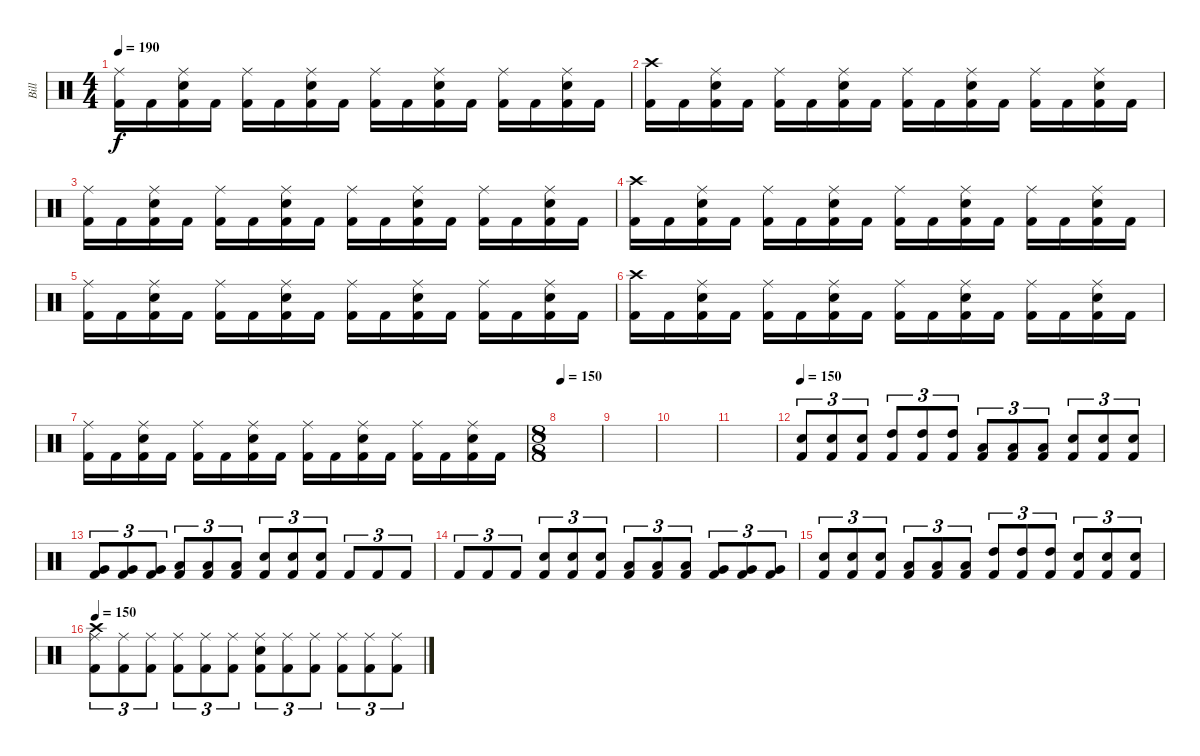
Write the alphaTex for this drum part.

\track ("Bill" "Bill") {instrument percussion}
\staff {score}
\articulation defaults
\ts (4 4)
\tempo 190
\clef neutral
\ks c
("Ride (middle)" "Kick (hit) 2").16{dy f} "Kick (hit) 2".16 ("Ride (middle)" "Snare (hit) 2" "Kick (hit) 2").16 "Kick (hit) 2".16 ("Ride (middle)" "Kick (hit) 2").16 "Kick (hit) 2".16 ("Ride (middle)" "Snare (hit) 2" "Kick (hit) 2").16 "Kick (hit) 2".16 ("Ride (middle)" "Kick (hit) 2").16 "Kick (hit) 2".16 ("Ride (middle)" "Snare (hit) 2" "Kick (hit) 2").16 "Kick (hit) 2".16 ("Ride (middle)" "Kick (hit) 2").16 "Kick (hit) 2".16 ("Ride (middle)" "Snare (hit) 2" "Kick (hit) 2").16 "Kick (hit) 2".16 |
("Crash high (hit)" "Kick (hit) 2").16 "Kick (hit) 2".16 ("Ride (middle)" "Snare (hit) 2" "Kick (hit) 2").16 "Kick (hit) 2".16 ("Ride (middle)" "Kick (hit) 2").16 "Kick (hit) 2".16 ("Ride (middle)" "Snare (hit) 2" "Kick (hit) 2").16 "Kick (hit) 2".16 ("Ride (middle)" "Kick (hit) 2").16 "Kick (hit) 2".16 ("Ride (middle)" "Snare (hit) 2" "Kick (hit) 2").16 "Kick (hit) 2".16 ("Ride (middle)" "Kick (hit) 2").16 "Kick (hit) 2".16 ("Ride (middle)" "Snare (hit) 2" "Kick (hit) 2").16 "Kick (hit) 2".16 |
("Ride (middle)" "Kick (hit) 2").16 "Kick (hit) 2".16 ("Ride (middle)" "Snare (hit) 2" "Kick (hit) 2").16 "Kick (hit) 2".16 ("Ride (middle)" "Kick (hit) 2").16 "Kick (hit) 2".16 ("Ride (middle)" "Snare (hit) 2" "Kick (hit) 2").16 "Kick (hit) 2".16 ("Ride (middle)" "Kick (hit) 2").16 "Kick (hit) 2".16 ("Ride (middle)" "Snare (hit) 2" "Kick (hit) 2").16 "Kick (hit) 2".16 ("Ride (middle)" "Kick (hit) 2").16 "Kick (hit) 2".16 ("Ride (middle)" "Snare (hit) 2" "Kick (hit) 2").16 "Kick (hit) 2".16 |
("Crash high (hit)" "Kick (hit) 2").16 "Kick (hit) 2".16 ("Ride (middle)" "Snare (hit) 2" "Kick (hit) 2").16 "Kick (hit) 2".16 ("Ride (middle)" "Kick (hit) 2").16 "Kick (hit) 2".16 ("Ride (middle)" "Snare (hit) 2" "Kick (hit) 2").16 "Kick (hit) 2".16 ("Ride (middle)" "Kick (hit) 2").16 "Kick (hit) 2".16 ("Ride (middle)" "Snare (hit) 2" "Kick (hit) 2").16 "Kick (hit) 2".16 ("Ride (middle)" "Kick (hit) 2").16 "Kick (hit) 2".16 ("Ride (middle)" "Snare (hit) 2" "Kick (hit) 2").16 "Kick (hit) 2".16 |
("Ride (middle)" "Kick (hit) 2").16 "Kick (hit) 2".16 ("Ride (middle)" "Snare (hit) 2" "Kick (hit) 2").16 "Kick (hit) 2".16 ("Ride (middle)" "Kick (hit) 2").16 "Kick (hit) 2".16 ("Ride (middle)" "Snare (hit) 2" "Kick (hit) 2").16 "Kick (hit) 2".16 ("Ride (middle)" "Kick (hit) 2").16 "Kick (hit) 2".16 ("Ride (middle)" "Snare (hit) 2" "Kick (hit) 2").16 "Kick (hit) 2".16 ("Ride (middle)" "Kick (hit) 2").16 "Kick (hit) 2".16 ("Ride (middle)" "Snare (hit) 2" "Kick (hit) 2").16 "Kick (hit) 2".16 |
("Crash high (hit)" "Kick (hit) 2").16 "Kick (hit) 2".16 ("Ride (middle)" "Snare (hit) 2" "Kick (hit) 2").16 "Kick (hit) 2".16 ("Ride (middle)" "Kick (hit) 2").16 "Kick (hit) 2".16 ("Ride (middle)" "Snare (hit) 2" "Kick (hit) 2").16 "Kick (hit) 2".16 ("Ride (middle)" "Kick (hit) 2").16 "Kick (hit) 2".16 ("Ride (middle)" "Snare (hit) 2" "Kick (hit) 2").16 "Kick (hit) 2".16 ("Ride (middle)" "Kick (hit) 2").16 "Kick (hit) 2".16 ("Ride (middle)" "Snare (hit) 2" "Kick (hit) 2").16 "Kick (hit) 2".16 |
("Ride (middle)" "Kick (hit) 2").16 "Kick (hit) 2".16 ("Ride (middle)" "Snare (hit) 2" "Kick (hit) 2").16 "Kick (hit) 2".16 ("Ride (middle)" "Kick (hit) 2").16 "Kick (hit) 2".16 ("Ride (middle)" "Snare (hit) 2" "Kick (hit) 2").16 "Kick (hit) 2".16 ("Ride (middle)" "Kick (hit) 2").16 "Kick (hit) 2".16 ("Ride (middle)" "Snare (hit) 2" "Kick (hit) 2").16 "Kick (hit) 2".16 ("Ride (middle)" "Kick (hit) 2").16 "Kick (hit) 2".16 ("Ride (middle)" "Snare (hit) 2" "Kick (hit) 2").16 "Kick (hit) 2".16 |
\ts (8 8)
\tempo 150
|
|
|
|
\tempo 150
("Snare (hit) 2" "Kick (hit) 2").8{tu (3 2)} ("Snare (hit) 2" "Kick (hit) 2").8{tu (3 2)} ("Snare (hit) 2" "Kick (hit) 2").8{tu (3 2)} ("High Tom (hit)" "Kick (hit) 2").8{tu (3 2)} ("High Tom (hit)" "Kick (hit) 2").8{tu (3 2)} ("High Tom (hit)" "Kick (hit) 2").8{tu (3 2)} ("Low Tom (hit)" "Kick (hit) 2").8{tu (3 2)} ("Low Tom (hit)" "Kick (hit) 2").8{tu (3 2)} ("Low Tom (hit)" "Kick (hit) 2").8{tu (3 2)} ("Snare (hit) 2" "Kick (hit) 2").8{tu (3 2)} ("Snare (hit) 2" "Kick (hit) 2").8{tu (3 2)} ("Snare (hit) 2" "Kick (hit) 2").8{tu (3 2)} |
("Very Low Tom (hit)" "Kick (hit) 2").8{tu (3 2)} ("Very Low Tom (hit)" "Kick (hit) 2").8{tu (3 2)} ("Very Low Tom (hit)" "Kick (hit) 2").8{tu (3 2)} ("Low Floor Tom (hit)" "Kick (hit) 2").8{tu (3 2)} ("Low Floor Tom (hit)" "Kick (hit) 2").8{tu (3 2)} ("Low Floor Tom (hit)" "Kick (hit) 2").8{tu (3 2)} ("Snare (hit) 2" "Kick (hit) 2").8{tu (3 2)} ("Snare (hit) 2" "Kick (hit) 2").8{tu (3 2)} ("Snare (hit) 2" "Kick (hit) 2").8{tu (3 2)} "Kick (hit) 2".8{tu (3 2)} "Kick (hit) 2".8{tu (3 2)} "Kick (hit) 2".8{tu (3 2)} |
"Kick (hit) 2".8{tu (3 2)} "Kick (hit) 2".8{tu (3 2)} "Kick (hit) 2".8{tu (3 2)} ("Snare (hit) 2" "Kick (hit) 2").8{tu (3 2)} ("Snare (hit) 2" "Kick (hit) 2").8{tu (3 2)} ("Snare (hit) 2" "Kick (hit) 2").8{tu (3 2)} ("Low Floor Tom (hit)" "Kick (hit) 2").8{tu (3 2)} ("Low Floor Tom (hit)" "Kick (hit) 2").8{tu (3 2)} ("Low Floor Tom (hit)" "Kick (hit) 2").8{tu (3 2)} ("Very Low Tom (hit)" "Kick (hit) 2").8{tu (3 2)} ("Very Low Tom (hit)" "Kick (hit) 2").8{tu (3 2)} ("Very Low Tom (hit)" "Kick (hit) 2").8{tu (3 2)} |
("Snare (hit) 2" "Kick (hit) 2").8{tu (3 2)} ("Snare (hit) 2" "Kick (hit) 2").8{tu (3 2)} ("Snare (hit) 2" "Kick (hit) 2").8{tu (3 2)} ("Low Tom (hit)" "Kick (hit) 2").8{tu (3 2)} ("Low Tom (hit)" "Kick (hit) 2").8{tu (3 2)} ("Low Tom (hit)" "Kick (hit) 2").8{tu (3 2)} ("High Tom (hit)" "Kick (hit) 2").8{tu (3 2)} ("High Tom (hit)" "Kick (hit) 2").8{tu (3 2)} ("High Tom (hit)" "Kick (hit) 2").8{tu (3 2)} ("Snare (hit) 2" "Kick (hit) 2").8{tu (3 2)} ("Snare (hit) 2" "Kick (hit) 2").8{tu (3 2)} ("Snare (hit) 2" "Kick (hit) 2").8{tu (3 2)} |
\tempo 150
("Ride (middle)" "Crash high (hit)" "Kick (hit) 2").8{tu (3 2)} ("Ride (middle)" "Kick (hit) 2").8{tu (3 2)} ("Ride (middle)" "Kick (hit) 2").8{tu (3 2)} ("Ride (middle)" "Kick (hit) 2").8{tu (3 2)} ("Ride (middle)" "Kick (hit) 2").8{tu (3 2)} ("Ride (middle)" "Kick (hit) 2").8{tu (3 2)} ("Ride (middle)" "Snare (hit) 2" "Kick (hit) 2").8{tu (3 2)} ("Ride (middle)" "Kick (hit) 2").8{tu (3 2)} ("Ride (middle)" "Kick (hit) 2").8{tu (3 2)} ("Ride (middle)" "Kick (hit) 2").8{tu (3 2)} ("Ride (middle)" "Kick (hit) 2").8{tu (3 2)} ("Ride (middle)" "Kick (hit) 2").8{tu (3 2)}
